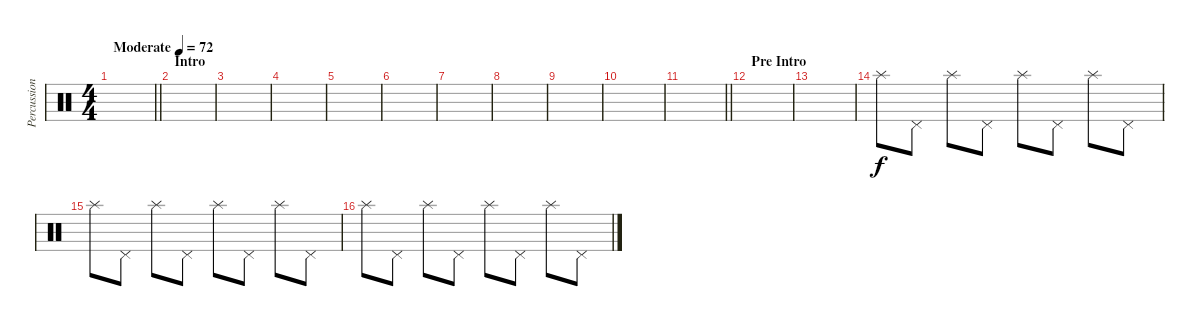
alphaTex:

\track ("Percussion" "Percussion") {instrument percussion}
\staff {score}
\articulation defaults
\ts (4 4)
\tempo (72 "Moderate")
\clef neutral
\barLineRight lightlight
\ks c
|
\section ("" "Intro")
|
|
|
|
|
|
|
|
|
\barLineRight lightlight
|
\section ("" "Pre Intro")
|
|
"Splash (hit)".8 "Pedal Hi-Hat (hit)".8 "Splash (hit)".8 "Pedal Hi-Hat (hit)".8 "Splash (hit)".8 "Pedal Hi-Hat (hit)".8 "Splash (hit)".8 "Pedal Hi-Hat (hit)".8 |
"Splash (hit)".8 "Pedal Hi-Hat (hit)".8 "Splash (hit)".8 "Pedal Hi-Hat (hit)".8 "Splash (hit)".8 "Pedal Hi-Hat (hit)".8 "Splash (hit)".8 "Pedal Hi-Hat (hit)".8 |
"Splash (hit)".8 "Pedal Hi-Hat (hit)".8 "Splash (hit)".8 "Pedal Hi-Hat (hit)".8 "Splash (hit)".8 "Pedal Hi-Hat (hit)".8 "Splash (hit)".8 "Pedal Hi-Hat (hit)".8
